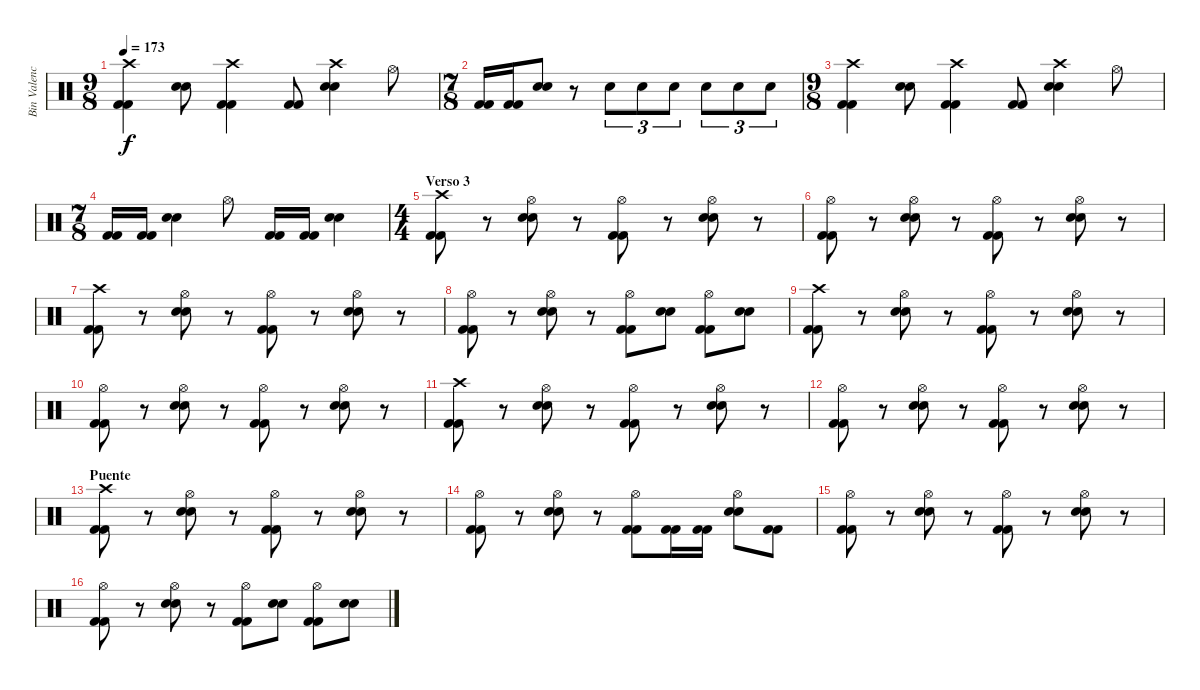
\track ("Bin Valencia (Bateria)" "Bin Valenc") {instrument percussion}
\staff {score}
\articulation defaults
\ts (9 8)
\tempo 173
\clef neutral
\ks c
("Crash high (hit)" "Kick (hit) 2" "Kick (hit) 2").4{dy f} ("Snare (hit) 2" "Snare (hit) 2").8 ("Crash high (hit)" "Kick (hit) 2" "Kick (hit) 2").4 ("Kick (hit) 2" "Kick (hit) 2").8 ("Crash high (hit)" "Snare (hit) 2" "Snare (hit) 2").4 "Hi-Hat (open)".8 |
\ts (7 8)
("Kick (hit) 2" "Kick (hit) 2").16 ("Kick (hit) 2" "Kick (hit) 2").16 ("Snare (hit) 2" "Snare (hit) 2").8 r.8 "Snare (hit) 2".8{tu (3 2)} "Snare (hit) 2".8{tu (3 2)} "Snare (hit) 2".8{tu (3 2)} "Snare (hit) 2".8{tu (3 2)} "Snare (hit) 2".8{tu (3 2)} "Snare (hit) 2".8{tu (3 2)} |
\ts (9 8)
("Crash high (hit)" "Kick (hit) 2" "Kick (hit) 2").4 ("Snare (hit) 2" "Snare (hit) 2").8 ("Crash high (hit)" "Kick (hit) 2" "Kick (hit) 2").4 ("Kick (hit) 2" "Kick (hit) 2").8 ("Crash high (hit)" "Snare (hit) 2" "Snare (hit) 2").4 "Hi-Hat (open)".8 |
\ts (7 8)
("Kick (hit) 2" "Kick (hit) 2").16 ("Kick (hit) 2" "Kick (hit) 2").16 ("Snare (hit) 2" "Snare (hit) 2").4 "Hi-Hat (open)".8 ("Kick (hit) 2" "Kick (hit) 2").16 ("Kick (hit) 2" "Kick (hit) 2").16 ("Snare (hit) 2" "Snare (hit) 2").4 |
\ts (4 4)
\section ("" "Verso 3")
("Crash high (hit)" "Kick (hit) 2" "Kick (hit) 2").8 r.8 ("Hi-Hat (open)" "Snare (hit) 2" "Snare (hit) 2").8 r.8 ("Hi-Hat (open)" "Kick (hit) 2" "Kick (hit) 2").8 r.8 ("Hi-Hat (open)" "Snare (hit) 2" "Snare (hit) 2").8 r.8 |
("Hi-Hat (open)" "Kick (hit) 2" "Kick (hit) 2").8 r.8 ("Hi-Hat (open)" "Snare (hit) 2" "Snare (hit) 2").8 r.8 ("Hi-Hat (open)" "Kick (hit) 2" "Kick (hit) 2").8 r.8 ("Hi-Hat (open)" "Snare (hit) 2" "Snare (hit) 2").8 r.8 |
("Crash high (hit)" "Kick (hit) 2" "Kick (hit) 2").8 r.8 ("Hi-Hat (open)" "Snare (hit) 2" "Snare (hit) 2").8 r.8 ("Hi-Hat (open)" "Kick (hit) 2" "Kick (hit) 2").8 r.8 ("Hi-Hat (open)" "Snare (hit) 2" "Snare (hit) 2").8 r.8 |
("Hi-Hat (open)" "Kick (hit) 2" "Kick (hit) 2").8 r.8 ("Hi-Hat (open)" "Snare (hit) 2" "Snare (hit) 2").8 r.8 ("Hi-Hat (open)" "Kick (hit) 2" "Kick (hit) 2").8 ("Snare (hit) 2" "Snare (hit) 2").8 ("Hi-Hat (open)" "Kick (hit) 2" "Kick (hit) 2").8 ("Snare (hit) 2" "Snare (hit) 2").8 |
("Crash high (hit)" "Kick (hit) 2" "Kick (hit) 2").8 r.8 ("Hi-Hat (open)" "Snare (hit) 2" "Snare (hit) 2").8 r.8 ("Hi-Hat (open)" "Kick (hit) 2" "Kick (hit) 2").8 r.8 ("Hi-Hat (open)" "Snare (hit) 2" "Snare (hit) 2").8 r.8 |
("Hi-Hat (open)" "Kick (hit) 2" "Kick (hit) 2").8 r.8 ("Hi-Hat (open)" "Snare (hit) 2" "Snare (hit) 2").8 r.8 ("Hi-Hat (open)" "Kick (hit) 2" "Kick (hit) 2").8 r.8 ("Hi-Hat (open)" "Snare (hit) 2" "Snare (hit) 2").8 r.8 |
("Crash high (hit)" "Kick (hit) 2" "Kick (hit) 2").8 r.8 ("Hi-Hat (open)" "Snare (hit) 2" "Snare (hit) 2").8 r.8 ("Hi-Hat (open)" "Kick (hit) 2" "Kick (hit) 2").8 r.8 ("Hi-Hat (open)" "Snare (hit) 2" "Snare (hit) 2").8 r.8 |
("Hi-Hat (open)" "Kick (hit) 2" "Kick (hit) 2").8 r.8 ("Hi-Hat (open)" "Snare (hit) 2" "Snare (hit) 2").8 r.8 ("Hi-Hat (open)" "Kick (hit) 2" "Kick (hit) 2").8 r.8 ("Hi-Hat (open)" "Snare (hit) 2" "Snare (hit) 2").8 r.8 |
\section ("" "Puente")
("Crash high (hit)" "Kick (hit) 2" "Kick (hit) 2").8 r.8 ("Hi-Hat (open)" "Snare (hit) 2" "Snare (hit) 2").8 r.8 ("Hi-Hat (open)" "Kick (hit) 2" "Kick (hit) 2").8 r.8 ("Hi-Hat (open)" "Snare (hit) 2" "Snare (hit) 2").8 r.8 |
("Hi-Hat (open)" "Kick (hit) 2" "Kick (hit) 2").8 r.8 ("Hi-Hat (open)" "Snare (hit) 2" "Snare (hit) 2").8 r.8 ("Hi-Hat (open)" "Kick (hit) 2" "Kick (hit) 2").8 ("Kick (hit) 2" "Kick (hit) 2").16 ("Kick (hit) 2" "Kick (hit) 2").16 ("Hi-Hat (open)" "Snare (hit) 2" "Snare (hit) 2").8 ("Kick (hit) 2" "Kick (hit) 2").8 |
("Hi-Hat (open)" "Kick (hit) 2" "Kick (hit) 2").8 r.8 ("Hi-Hat (open)" "Snare (hit) 2" "Snare (hit) 2").8 r.8 ("Hi-Hat (open)" "Kick (hit) 2" "Kick (hit) 2").8 r.8 ("Hi-Hat (open)" "Snare (hit) 2" "Snare (hit) 2").8 r.8 |
("Hi-Hat (open)" "Kick (hit) 2" "Kick (hit) 2").8 r.8 ("Hi-Hat (open)" "Snare (hit) 2" "Snare (hit) 2").8 r.8 ("Hi-Hat (open)" "Kick (hit) 2" "Kick (hit) 2").8 ("Snare (hit) 2" "Snare (hit) 2").8 ("Hi-Hat (open)" "Kick (hit) 2" "Kick (hit) 2").8 ("Snare (hit) 2" "Snare (hit) 2").8
